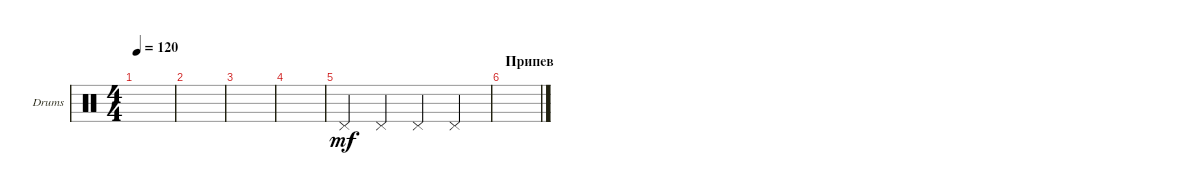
\defaultSystemsLayout 4
\bracketExtendMode groupsimilarinstruments
\firstSystemTrackNameOrientation horizontal
\otherSystemsTrackNameOrientation horizontal
\track ("Drumkit" "Drums") {instrument percussion}
\staff {score}
\articulation defaults
\ts (4 4)
\tempo 120
\clef neutral
\scale
0.333333
\ks c
|
\scale
0.333333 |
\scale
0.333333 |
\scale
0.333333 |
\scale
0.333333 "Pedal Hi-Hat (hit)".4{dy mf} "Pedal Hi-Hat (hit)".4 "Pedal Hi-Hat (hit)".4 "Pedal Hi-Hat (hit)".4 |
\section ("" "Припев")
\scale
0.333333 |
\scale
0.333333 |
\scale
0.333333 |
\scale
0.333333 |
\scale
0.333333 |
\scale
0.333333 |
\scale
0.333333 |
\scale
0.333333 |
\scale
0.333333 |
\scale
0.333333 |
\scale
0.333333
